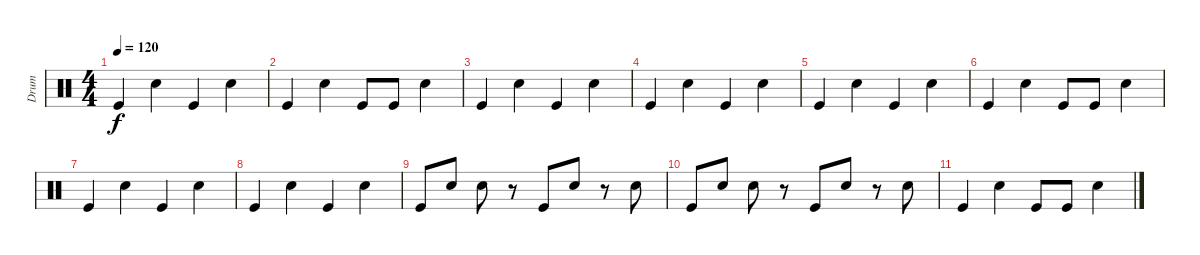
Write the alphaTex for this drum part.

\track ("Drum" "Drum") {instrument percussion}
\staff {score}
\articulation defaults
\ts (4 4)
\tempo 120
\clef neutral
\ks c "Kick (hit)".4{dy f} "Snare (hit) 2".4 "Kick (hit)".4 "Snare (hit) 2".4
|
"Kick (hit)".4 "Snare (hit) 2".4 "Kick (hit)".8 "Kick (hit)".8 "Snare (hit) 2".4 |
"Kick (hit)".4 "Snare (hit) 2".4 "Kick (hit)".4 "Snare (hit) 2".4 |
"Kick (hit)".4 "Snare (hit) 2".4 "Kick (hit)".4 "Snare (hit) 2".4 |
"Kick (hit)".4 "Snare (hit) 2".4 "Kick (hit)".4 "Snare (hit) 2".4 |
"Kick (hit)".4 "Snare (hit) 2".4 "Kick (hit)".8 "Kick (hit)".8 "Snare (hit) 2".4 |
"Kick (hit)".4 "Snare (hit) 2".4 "Kick (hit)".4 "Snare (hit) 2".4 |
"Kick (hit)".4 "Snare (hit) 2".4 "Kick (hit)".4 "Snare (hit) 2".4 |
"Kick (hit)".8 "Snare (hit) 2".8 "Snare (hit) 2".8 r.8 "Kick (hit)".8 "Snare (hit) 2".8 r.8 "Snare (hit) 2".8 |
"Kick (hit)".8 "Snare (hit) 2".8 "Snare (hit) 2".8 r.8 "Kick (hit)".8 "Snare (hit) 2".8 r.8 "Snare (hit) 2".8 |
"Kick (hit)".4 "Snare (hit) 2".4 "Kick (hit)".8 "Kick (hit)".8 "Snare (hit) 2".4
